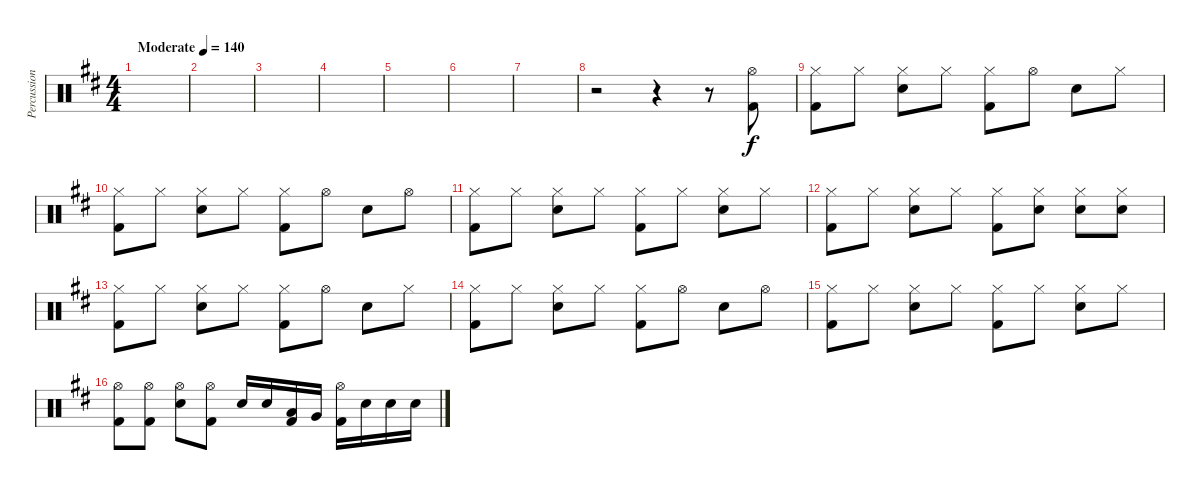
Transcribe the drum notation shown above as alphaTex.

\track ("Percussion" "Percussion") {instrument percussion}
\staff {score}
\articulation defaults
\ts (4 4)
\tempo (140 "Moderate")
\clef neutral
\ks d
|
|
|
|
|
|
|
r.2 r.4 r.8 ("Hi-Hat (open)" "Kick (hit) 2").8 |
("Hi-Hat (closed)" "Kick (hit) 2").8 "Hi-Hat (closed)".8 ("Hi-Hat (closed)" "Electric Snare (hit)").8 "Hi-Hat (closed)".8 ("Hi-Hat (closed)" "Kick (hit) 2").8 "Hi-Hat (open)".8 "Electric Snare (hit)".8 "Hi-Hat (closed)".8 |
("Hi-Hat (closed)" "Kick (hit) 2").8 "Hi-Hat (closed)".8 ("Hi-Hat (closed)" "Electric Snare (hit)").8 "Hi-Hat (closed)".8 ("Hi-Hat (closed)" "Kick (hit) 2").8 "Hi-Hat (open)".8 "Electric Snare (hit)".8 "Hi-Hat (open)".8 |
("Hi-Hat (closed)" "Kick (hit) 2").8 "Hi-Hat (closed)".8 ("Hi-Hat (closed)" "Electric Snare (hit)").8 "Hi-Hat (closed)".8 ("Hi-Hat (closed)" "Kick (hit) 2").8 "Hi-Hat (closed)".8 ("Hi-Hat (closed)" "Electric Snare (hit)").8 "Hi-Hat (closed)".8 |
("Hi-Hat (closed)" "Kick (hit) 2").8 "Hi-Hat (closed)".8 ("Hi-Hat (closed)" "Electric Snare (hit)").8 "Hi-Hat (closed)".8 ("Hi-Hat (closed)" "Kick (hit) 2").8 ("Hi-Hat (closed)" "Electric Snare (hit)").8 ("Hi-Hat (closed)" "Electric Snare (hit)").8 ("Hi-Hat (closed)" "Electric Snare (hit)").8 |
("Hi-Hat (closed)" "Kick (hit) 2").8 "Hi-Hat (closed)".8 ("Hi-Hat (closed)" "Electric Snare (hit)").8 "Hi-Hat (closed)".8 ("Hi-Hat (closed)" "Kick (hit) 2").8 "Hi-Hat (open)".8 "Electric Snare (hit)".8 "Hi-Hat (closed)".8 |
("Hi-Hat (closed)" "Kick (hit) 2").8 "Hi-Hat (closed)".8 ("Hi-Hat (closed)" "Electric Snare (hit)").8 "Hi-Hat (closed)".8 ("Hi-Hat (closed)" "Kick (hit) 2").8 "Hi-Hat (open)".8 "Electric Snare (hit)".8 "Hi-Hat (open)".8 |
("Hi-Hat (closed)" "Kick (hit) 2").8 "Hi-Hat (closed)".8 ("Hi-Hat (closed)" "Electric Snare (hit)").8 "Hi-Hat (closed)".8 ("Hi-Hat (closed)" "Kick (hit) 2").8 "Hi-Hat (closed)".8 ("Hi-Hat (closed)" "Electric Snare (hit)").8 "Hi-Hat (closed)".8 |
("Hi-Hat (open)" "Kick (hit) 2").8 ("Hi-Hat (open)" "Kick (hit) 2").8 ("Hi-Hat (open)" "Electric Snare (hit)").8 ("Hi-Hat (open)" "Kick (hit) 2").8 "Electric Snare (hit)".16 "Electric Snare (hit)".16 ("Low Tom (hit)" "Kick (hit) 2").16 "Very Low Tom (hit)".16 ("Hi-Hat (open)" "Kick (hit) 2").16 "Electric Snare (hit)".16 "Electric Snare (hit)".16 "Electric Snare (hit)".16
